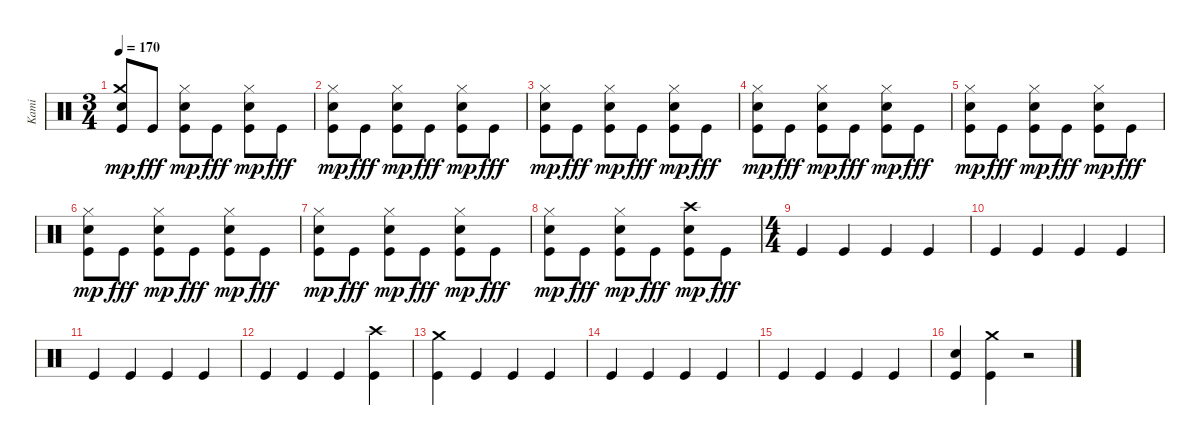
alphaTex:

\track ("Kami" "Kami") {instrument percussion}
\staff {score}
\articulation defaults
\ts (3 4)
\tempo 170
\clef neutral
\ks c
("Kick (hit)" "Crash medium (hit)" "Snare (hit) 2").8{dy mp} "Kick (hit)".8{dy fff} ("Kick (hit)" "Snare (hit) 2" "Hi-Hat (closed)").8{dy mp} "Kick (hit)".8{dy fff} ("Kick (hit)" "Hi-Hat (closed)" "Snare (hit) 2").8{dy mp} "Kick (hit)".8{dy fff} |
("Kick (hit)" "Hi-Hat (closed)" "Snare (hit) 2").8{dy mp} "Kick (hit)".8{dy fff} ("Kick (hit)" "Hi-Hat (closed)" "Snare (hit) 2").8{dy mp} "Kick (hit)".8{dy fff} ("Kick (hit)" "Hi-Hat (closed)" "Snare (hit) 2").8{dy mp} "Kick (hit)".8{dy fff} |
("Kick (hit)" "Hi-Hat (closed)" "Snare (hit) 2").8{dy mp} "Kick (hit)".8{dy fff} ("Kick (hit)" "Hi-Hat (closed)" "Snare (hit) 2").8{dy mp} "Kick (hit)".8{dy fff} ("Kick (hit)" "Hi-Hat (closed)" "Snare (hit) 2").8{dy mp} "Kick (hit)".8{dy fff} |
("Kick (hit)" "Hi-Hat (closed)" "Snare (hit) 2").8{dy mp} "Kick (hit)".8{dy fff} ("Kick (hit)" "Hi-Hat (closed)" "Snare (hit) 2").8{dy mp} "Kick (hit)".8{dy fff} ("Kick (hit)" "Hi-Hat (closed)" "Snare (hit) 2").8{dy mp} "Kick (hit)".8{dy fff} |
("Kick (hit)" "Hi-Hat (closed)" "Snare (hit) 2").8{dy mp} "Kick (hit)".8{dy fff} ("Kick (hit)" "Hi-Hat (closed)" "Snare (hit) 2").8{dy mp} "Kick (hit)".8{dy fff} ("Kick (hit)" "Hi-Hat (closed)" "Snare (hit) 2").8{dy mp} "Kick (hit)".8{dy fff} |
("Kick (hit)" "Hi-Hat (closed)" "Snare (hit) 2").8{dy mp} "Kick (hit)".8{dy fff} ("Kick (hit)" "Hi-Hat (closed)" "Snare (hit) 2").8{dy mp} "Kick (hit)".8{dy fff} ("Kick (hit)" "Hi-Hat (closed)" "Snare (hit) 2").8{dy mp} "Kick (hit)".8{dy fff} |
("Kick (hit)" "Hi-Hat (closed)" "Snare (hit) 2").8{dy mp} "Kick (hit)".8{dy fff} ("Kick (hit)" "Hi-Hat (closed)" "Snare (hit) 2").8{dy mp} "Kick (hit)".8{dy fff} ("Kick (hit)" "Hi-Hat (closed)" "Snare (hit) 2").8{dy mp} "Kick (hit)".8{dy fff} |
("Kick (hit)" "Hi-Hat (closed)" "Snare (hit) 2").8{dy mp} "Kick (hit)".8{dy fff} ("Kick (hit)" "Hi-Hat (closed)" "Snare (hit) 2").8{dy mp} "Kick (hit)".8{dy fff} ("Kick (hit)" "Crash high (hit)" "Snare (hit) 2").8{dy mp} "Kick (hit)".8{dy fff} |
\ts (4 4)
"Kick (hit)".4 "Kick (hit)".4 "Kick (hit)".4 "Kick (hit)".4 |
"Kick (hit)".4 "Kick (hit)".4 "Kick (hit)".4 "Kick (hit)".4 |
"Kick (hit)".4 "Kick (hit)".4 "Kick (hit)".4 "Kick (hit)".4 |
"Kick (hit)".4 "Kick (hit)".4 "Kick (hit)".4 ("Kick (hit)" "Crash high (hit)").4 |
("Kick (hit)" "Crash medium (hit)").4 "Kick (hit)".4 "Kick (hit)".4 "Kick (hit)".4 |
"Kick (hit)".4 "Kick (hit)".4 "Kick (hit)".4 "Kick (hit)".4 |
"Kick (hit)".4 "Kick (hit)".4 "Kick (hit)".4 "Kick (hit)".4 |
("Kick (hit)" "Snare (hit) 2").4 ("Kick (hit)" "Crash medium (hit)").4 r.2
